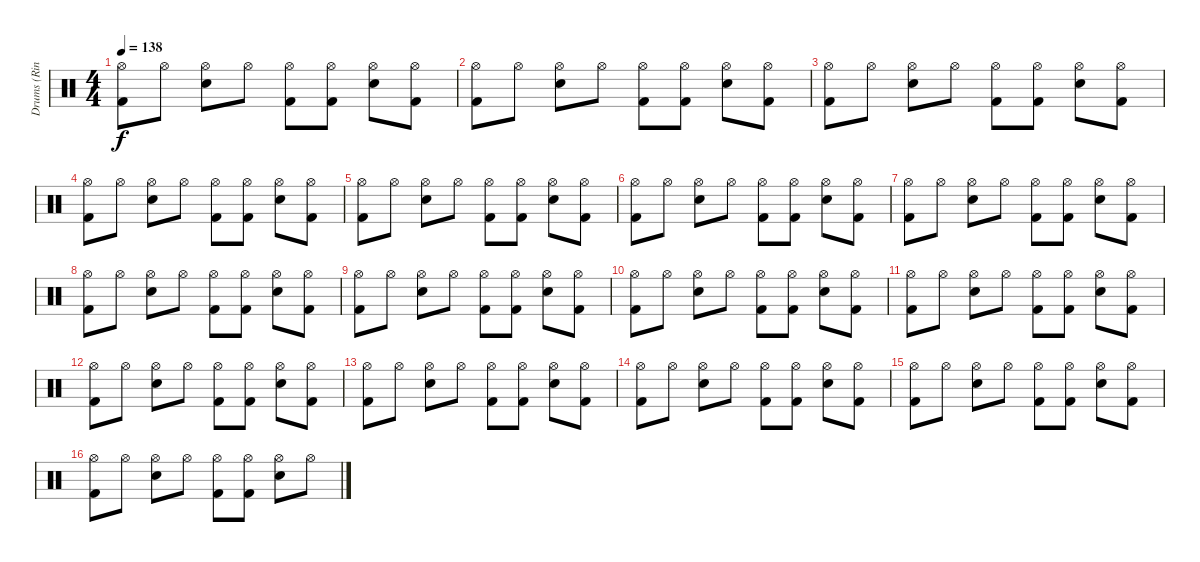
\track ("Drums (Ringo Starr)" "Drums (Rin") {instrument percussion}
\staff {score}
\articulation defaults
\ts (4 4)
\tempo 138
\clef neutral
\ks c
("Hi-Hat (open)" "Kick (hit) 2").8{dy f} "Hi-Hat (open)".8 ("Hi-Hat (open)" "Snare (hit) 2").8 "Hi-Hat (open)".8 ("Hi-Hat (open)" "Kick (hit) 2").8 ("Hi-Hat (open)" "Kick (hit) 2").8 ("Hi-Hat (open)" "Snare (hit) 2").8 ("Hi-Hat (open)" "Kick (hit) 2").8 |
("Hi-Hat (open)" "Kick (hit) 2").8 "Hi-Hat (open)".8 ("Hi-Hat (open)" "Snare (hit) 2").8 "Hi-Hat (open)".8 ("Hi-Hat (open)" "Kick (hit) 2").8 ("Hi-Hat (open)" "Kick (hit) 2").8 ("Hi-Hat (open)" "Snare (hit) 2").8 ("Hi-Hat (open)" "Kick (hit) 2").8 |
("Hi-Hat (open)" "Kick (hit) 2").8 "Hi-Hat (open)".8 ("Hi-Hat (open)" "Snare (hit) 2").8 "Hi-Hat (open)".8 ("Hi-Hat (open)" "Kick (hit) 2").8 ("Hi-Hat (open)" "Kick (hit) 2").8 ("Hi-Hat (open)" "Snare (hit) 2").8 ("Hi-Hat (open)" "Kick (hit) 2").8 |
("Hi-Hat (open)" "Kick (hit) 2").8 "Hi-Hat (open)".8 ("Hi-Hat (open)" "Snare (hit) 2").8 "Hi-Hat (open)".8 ("Hi-Hat (open)" "Kick (hit) 2").8 ("Hi-Hat (open)" "Kick (hit) 2").8 ("Hi-Hat (open)" "Snare (hit) 2").8 ("Hi-Hat (open)" "Kick (hit) 2").8 |
("Hi-Hat (open)" "Kick (hit) 2").8 "Hi-Hat (open)".8 ("Hi-Hat (open)" "Snare (hit) 2").8 "Hi-Hat (open)".8 ("Hi-Hat (open)" "Kick (hit) 2").8 ("Hi-Hat (open)" "Kick (hit) 2").8 ("Hi-Hat (open)" "Snare (hit) 2").8 ("Hi-Hat (open)" "Kick (hit) 2").8 |
("Hi-Hat (open)" "Kick (hit) 2").8 "Hi-Hat (open)".8 ("Hi-Hat (open)" "Snare (hit) 2").8 "Hi-Hat (open)".8 ("Hi-Hat (open)" "Kick (hit) 2").8 ("Hi-Hat (open)" "Kick (hit) 2").8 ("Hi-Hat (open)" "Snare (hit) 2").8 ("Hi-Hat (open)" "Kick (hit) 2").8 |
("Hi-Hat (open)" "Kick (hit) 2").8 "Hi-Hat (open)".8 ("Hi-Hat (open)" "Snare (hit) 2").8 "Hi-Hat (open)".8 ("Hi-Hat (open)" "Kick (hit) 2").8 ("Hi-Hat (open)" "Kick (hit) 2").8 ("Hi-Hat (open)" "Snare (hit) 2").8 ("Hi-Hat (open)" "Kick (hit) 2").8 |
("Hi-Hat (open)" "Kick (hit) 2").8 "Hi-Hat (open)".8 ("Hi-Hat (open)" "Snare (hit) 2").8 "Hi-Hat (open)".8 ("Hi-Hat (open)" "Kick (hit) 2").8 ("Hi-Hat (open)" "Kick (hit) 2").8 ("Hi-Hat (open)" "Snare (hit) 2").8 ("Hi-Hat (open)" "Kick (hit) 2").8 |
("Hi-Hat (open)" "Kick (hit) 2").8 "Hi-Hat (open)".8 ("Hi-Hat (open)" "Snare (hit) 2").8 "Hi-Hat (open)".8 ("Hi-Hat (open)" "Kick (hit) 2").8 ("Hi-Hat (open)" "Kick (hit) 2").8 ("Hi-Hat (open)" "Snare (hit) 2").8 ("Hi-Hat (open)" "Kick (hit) 2").8 |
("Hi-Hat (open)" "Kick (hit) 2").8{volume 10} "Hi-Hat (open)".8 ("Hi-Hat (open)" "Snare (hit) 2").8 "Hi-Hat (open)".8 ("Hi-Hat (open)" "Kick (hit) 2").8 ("Hi-Hat (open)" "Kick (hit) 2").8 ("Hi-Hat (open)" "Snare (hit) 2").8 ("Hi-Hat (open)" "Kick (hit) 2").8 |
("Hi-Hat (open)" "Kick (hit) 2").8 "Hi-Hat (open)".8 ("Hi-Hat (open)" "Snare (hit) 2").8 "Hi-Hat (open)".8 ("Hi-Hat (open)" "Kick (hit) 2").8 ("Hi-Hat (open)" "Kick (hit) 2").8 ("Hi-Hat (open)" "Snare (hit) 2").8 ("Hi-Hat (open)" "Kick (hit) 2").8 |
("Hi-Hat (open)" "Kick (hit) 2").8 "Hi-Hat (open)".8 ("Hi-Hat (open)" "Snare (hit) 2").8 "Hi-Hat (open)".8 ("Hi-Hat (open)" "Kick (hit) 2").8 ("Hi-Hat (open)" "Kick (hit) 2").8 ("Hi-Hat (open)" "Snare (hit) 2").8 ("Hi-Hat (open)" "Kick (hit) 2").8 |
("Hi-Hat (open)" "Kick (hit) 2").8 "Hi-Hat (open)".8 ("Hi-Hat (open)" "Snare (hit) 2").8 "Hi-Hat (open)".8 ("Hi-Hat (open)" "Kick (hit) 2").8 ("Hi-Hat (open)" "Kick (hit) 2").8 ("Hi-Hat (open)" "Snare (hit) 2").8 ("Hi-Hat (open)" "Kick (hit) 2").8 |
("Hi-Hat (open)" "Kick (hit) 2").8 "Hi-Hat (open)".8 ("Hi-Hat (open)" "Snare (hit) 2").8 "Hi-Hat (open)".8 ("Hi-Hat (open)" "Kick (hit) 2").8 ("Hi-Hat (open)" "Kick (hit) 2").8 ("Hi-Hat (open)" "Snare (hit) 2").8 ("Hi-Hat (open)" "Kick (hit) 2").8 |
("Hi-Hat (open)" "Kick (hit) 2").8 "Hi-Hat (open)".8 ("Hi-Hat (open)" "Snare (hit) 2").8 "Hi-Hat (open)".8 ("Hi-Hat (open)" "Kick (hit) 2").8 ("Hi-Hat (open)" "Kick (hit) 2").8 ("Hi-Hat (open)" "Snare (hit) 2").8 ("Hi-Hat (open)" "Kick (hit) 2").8 |
("Hi-Hat (open)" "Kick (hit) 2").8 "Hi-Hat (open)".8 ("Hi-Hat (open)" "Snare (hit) 2").8 "Hi-Hat (open)".8 ("Hi-Hat (open)" "Kick (hit) 2").8 ("Hi-Hat (open)" "Kick (hit) 2").8 ("Hi-Hat (open)" "Snare (hit) 2").8 "Hi-Hat (open)".8
